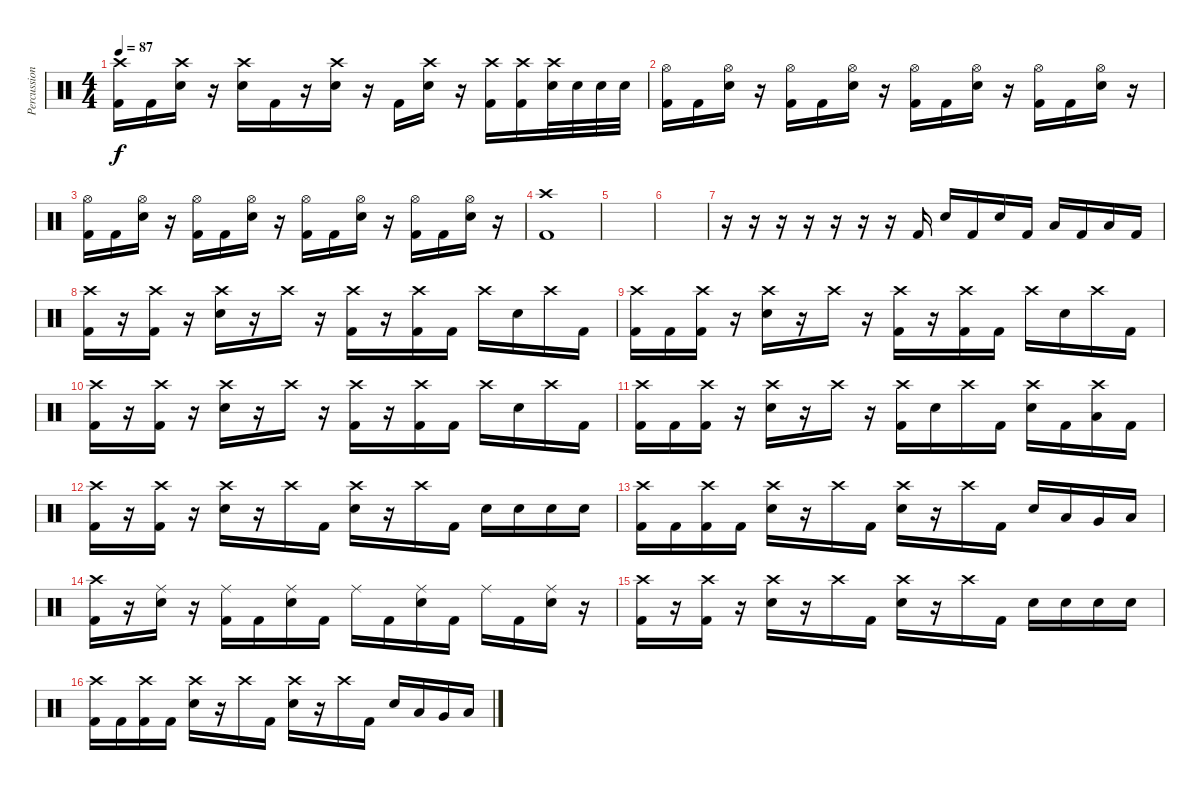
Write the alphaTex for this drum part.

\track ("Percussion" "Percussion") {instrument percussion}
\staff {score}
\articulation defaults
\ts (4 4)
\tempo 87
\clef neutral
\ks c
("Kick (hit) 2" "Crash high (hit)").16{dy f} "Kick (hit) 2".16 ("Electric Snare (hit)" "Crash high (hit)").16 r.16 ("Electric Snare (hit)" "Crash high (hit)").16 "Kick (hit) 2".16 r.16 ("Electric Snare (hit)" "Crash high (hit)").16 r.16 "Kick (hit) 2".16 ("Electric Snare (hit)" "Crash high (hit)").16 r.16 ("Kick (hit) 2" "Crash high (hit)").16 ("Kick (hit) 2" "Crash high (hit)").16 ("Electric Snare (hit)" "Crash high (hit)").32 "Electric Snare (hit)".32 "Electric Snare (hit)".32 "Electric Snare (hit)".32 |
("Kick (hit) 2" "Hi-Hat (open)").16 "Kick (hit) 2".16 ("Electric Snare (hit)" "Hi-Hat (open)").16 r.16 ("Kick (hit) 2" "Hi-Hat (open)").16 "Kick (hit) 2".16 ("Electric Snare (hit)" "Hi-Hat (open)").16 r.16 ("Kick (hit) 2" "Hi-Hat (open)").16 "Kick (hit) 2".16 ("Electric Snare (hit)" "Hi-Hat (open)").16 r.16 ("Kick (hit) 2" "Hi-Hat (open)").16 "Kick (hit) 2".16 ("Electric Snare (hit)" "Hi-Hat (open)").16 r.16 |
("Kick (hit) 2" "Hi-Hat (open)").16 "Kick (hit) 2".16 ("Electric Snare (hit)" "Hi-Hat (open)").16 r.16 ("Kick (hit) 2" "Hi-Hat (open)").16 "Kick (hit) 2".16 ("Electric Snare (hit)" "Hi-Hat (open)").16 r.16 ("Kick (hit) 2" "Hi-Hat (open)").16 "Kick (hit) 2".16 ("Electric Snare (hit)" "Hi-Hat (open)").16 r.16 ("Kick (hit) 2" "Hi-Hat (open)").16 "Kick (hit) 2".16 ("Electric Snare (hit)" "Hi-Hat (open)").16 r.16 |
("Kick (hit) 2" "Crash high (hit)").1 |
|
|
r.16 r.16 r.16 r.16 r.16 r.16 r.16 "Kick (hit) 2".16 "Electric Snare (hit)".16 "Kick (hit) 2".16 "Electric Snare (hit)".16 "Kick (hit) 2".16 "Low Floor Tom (hit)".16 "Kick (hit) 2".16 "Low Floor Tom (hit)".16 "Kick (hit) 2".16 |
("Kick (hit) 2" "Crash high (hit)").16 r.16 ("Kick (hit) 2" "Crash high (hit)").16 r.16 ("Electric Snare (hit)" "Crash high (hit)").16 r.16 "Crash high (hit)".16 r.16 ("Kick (hit) 2" "Crash high (hit)").16 r.16 ("Kick (hit) 2" "Crash high (hit)").16 "Kick (hit) 2".16 "Crash high (hit)".16 "Electric Snare (hit)".16 "Crash high (hit)".16 "Kick (hit) 2".16 |
("Kick (hit) 2" "Crash high (hit)").16 "Kick (hit) 2".16 ("Kick (hit) 2" "Crash high (hit)").16 r.16 ("Electric Snare (hit)" "Crash high (hit)").16 r.16 "Crash high (hit)".16 r.16 ("Kick (hit) 2" "Crash high (hit)").16 r.16 ("Kick (hit) 2" "Crash high (hit)").16 "Kick (hit) 2".16 "Crash high (hit)".16 "Electric Snare (hit)".16 "Crash high (hit)".16 "Kick (hit) 2".16 |
("Kick (hit) 2" "Crash high (hit)").16 r.16 ("Kick (hit) 2" "Crash high (hit)").16 r.16 ("Electric Snare (hit)" "Crash high (hit)").16 r.16 "Crash high (hit)".16 r.16 ("Kick (hit) 2" "Crash high (hit)").16 r.16 ("Kick (hit) 2" "Crash high (hit)").16 "Kick (hit) 2".16 "Crash high (hit)".16 "Electric Snare (hit)".16 "Crash high (hit)".16 "Kick (hit) 2".16 |
("Kick (hit) 2" "Crash high (hit)").16 "Kick (hit) 2".16 ("Kick (hit) 2" "Crash high (hit)").16 r.16 ("Electric Snare (hit)" "Crash high (hit)").16 r.16 "Crash high (hit)".16 r.16 ("Kick (hit) 2" "Crash high (hit)").16 "Electric Snare (hit)".16 "Crash high (hit)".16 "Kick (hit) 2".16 ("Electric Snare (hit)" "Crash high (hit)").16 "Kick (hit) 2".16 ("Low Floor Tom (hit)" "Crash high (hit)").16 "Kick (hit) 2".16 |
("Kick (hit) 2" "Crash high (hit)").16 r.16 ("Kick (hit) 2" "Crash high (hit)").16 r.16 ("Electric Snare (hit)" "Crash high (hit)").16 r.16 "Crash high (hit)".16 "Kick (hit) 2".16 ("Electric Snare (hit)" "Crash high (hit)").16 r.16 "Crash high (hit)".16 "Kick (hit) 2".16 "Electric Snare (hit)".16 "Electric Snare (hit)".16 "Electric Snare (hit)".16 "Electric Snare (hit)".16 |
("Kick (hit) 2" "Crash high (hit)").16 "Kick (hit) 2".16 ("Kick (hit) 2" "Crash high (hit)").16 "Kick (hit) 2".16 ("Electric Snare (hit)" "Crash high (hit)").16 r.16 "Crash high (hit)".16 "Kick (hit) 2".16 ("Electric Snare (hit)" "Crash high (hit)").16 r.16 "Crash high (hit)".16 "Kick (hit) 2".16 "Electric Snare (hit)".16 "Low Tom (hit)".16 "Very Low Tom (hit)".16 "Low Floor Tom (hit)".16 |
("Kick (hit) 2" "Crash high (hit)").16 r.16 ("Electric Snare (hit)" "Ride (middle)").16 r.16 ("Kick (hit) 2" "Ride (middle)").16 "Kick (hit) 2".16 ("Electric Snare (hit)" "Ride (middle)").16 "Kick (hit) 2".16 "Ride (middle)".16 "Kick (hit) 2".16 ("Electric Snare (hit)" "Ride (middle)").16 "Kick (hit) 2".16 "Ride (middle)".16 "Kick (hit) 2".16 ("Electric Snare (hit)" "Ride (middle)").16 r.16 |
("Kick (hit) 2" "Crash high (hit)").16 r.16 ("Kick (hit) 2" "Crash high (hit)").16 r.16 ("Electric Snare (hit)" "Crash high (hit)").16 r.16 "Crash high (hit)".16 "Kick (hit) 2".16 ("Electric Snare (hit)" "Crash high (hit)").16 r.16 "Crash high (hit)".16 "Kick (hit) 2".16 "Electric Snare (hit)".16 "Electric Snare (hit)".16 "Electric Snare (hit)".16 "Electric Snare (hit)".16 |
("Kick (hit) 2" "Crash high (hit)").16 "Kick (hit) 2".16 ("Kick (hit) 2" "Crash high (hit)").16 "Kick (hit) 2".16 ("Electric Snare (hit)" "Crash high (hit)").16 r.16 "Crash high (hit)".16 "Kick (hit) 2".16 ("Electric Snare (hit)" "Crash high (hit)").16 r.16 "Crash high (hit)".16 "Kick (hit) 2".16 "Electric Snare (hit)".16 "Low Tom (hit)".16 "Very Low Tom (hit)".16 "Low Floor Tom (hit)".16
